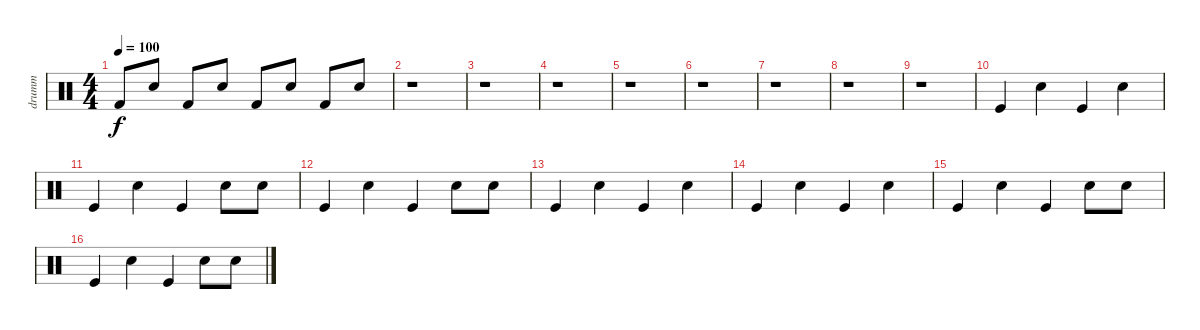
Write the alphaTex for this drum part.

\track ("drumm" "drumm") {instrument percussion}
\staff {score}
\articulation defaults
\ts (4 4)
\tempo 100
\clef neutral
\ks c "Kick (hit) 2".8{dy f} "Snare (hit) 2".8 "Kick (hit) 2".8 "Snare (hit) 2".8 "Kick (hit) 2".8 "Snare (hit) 2".8 "Kick (hit) 2".8 "Snare (hit) 2".8
|
r.1 |
r.1 |
r.1 |
r.1 |
r.1 |
r.1 |
r.1 |
r.1 |
"Kick (hit)".4 "Snare (hit) 2".4 "Kick (hit)".4 "Snare (hit) 2".4 |
"Kick (hit)".4 "Snare (hit) 2".4 "Kick (hit)".4 "Snare (hit) 2".8 "Snare (hit) 2".8 |
"Kick (hit)".4 "Snare (hit) 2".4 "Kick (hit)".4 "Snare (hit) 2".8 "Snare (hit) 2".8 |
"Kick (hit)".4 "Snare (hit) 2".4 "Kick (hit)".4 "Snare (hit) 2".4 |
"Kick (hit)".4 "Snare (hit) 2".4 "Kick (hit)".4 "Snare (hit) 2".4 |
"Kick (hit)".4 "Snare (hit) 2".4 "Kick (hit)".4 "Snare (hit) 2".8 "Snare (hit) 2".8 |
"Kick (hit)".4 "Snare (hit) 2".4 "Kick (hit)".4 "Snare (hit) 2".8 "Snare (hit) 2".8
